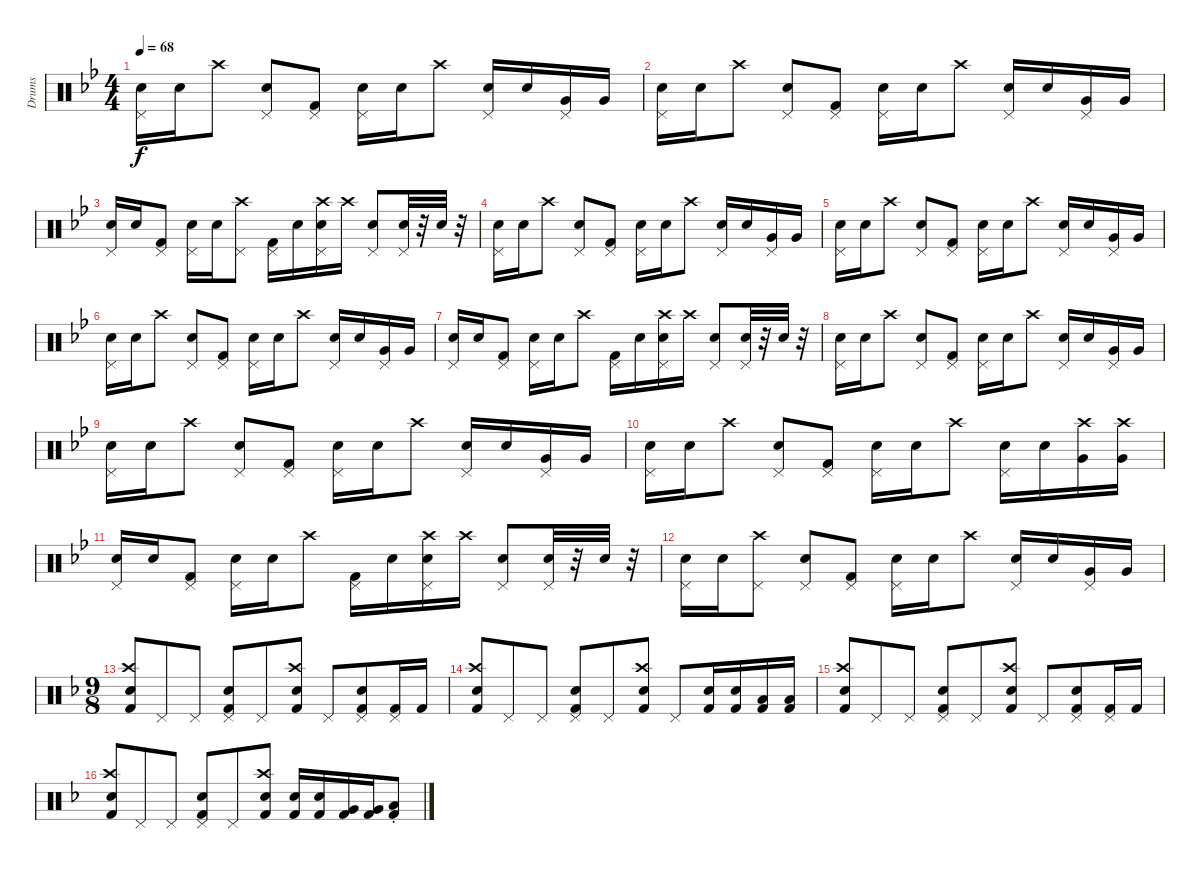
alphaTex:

\track ("Drums" "Drums") {instrument percussion}
\staff {score}
\articulation defaults
\ts (4 4)
\tempo 68
\clef neutral
\ks gminor
("Pedal Hi-Hat (hit)" "Snare (hit) 2").16{dy f} "Snare (hit) 2".16 "Crash high (hit)".8 ("Pedal Hi-Hat (hit)" "Snare (hit) 2").8 ("Pedal Hi-Hat (hit)" "Kick (hit) 2").8 ("Pedal Hi-Hat (hit)" "Snare (hit) 2").16 "Snare (hit) 2".16 "Crash high (hit)".8 ("Pedal Hi-Hat (hit)" "Snare (hit) 2").16 "Snare (hit) 2".16 ("Pedal Hi-Hat (hit)" "Very Low Tom (hit)").16 "Very Low Tom (hit)".16 |
("Pedal Hi-Hat (hit)" "Snare (hit) 2").16 "Snare (hit) 2".16 "Crash high (hit)".8 ("Pedal Hi-Hat (hit)" "Snare (hit) 2").8 ("Pedal Hi-Hat (hit)" "Kick (hit) 2").8 ("Pedal Hi-Hat (hit)" "Snare (hit) 2").16 "Snare (hit) 2".16 "Crash high (hit)".8 ("Pedal Hi-Hat (hit)" "Snare (hit) 2").16 "Snare (hit) 2".16 ("Pedal Hi-Hat (hit)" "Very Low Tom (hit)").16 "Very Low Tom (hit)".16 |
("Pedal Hi-Hat (hit)" "Snare (hit) 2").16 "Snare (hit) 2".16 ("Pedal Hi-Hat (hit)" "Kick (hit) 2").8 ("Pedal Hi-Hat (hit)" "Snare (hit) 2").16 "Snare (hit) 2".16 ("Pedal Hi-Hat (hit)" "Crash high (hit)").8 ("Pedal Hi-Hat (hit)" "Kick (hit) 2").16 "Snare (hit) 2".16 ("Pedal Hi-Hat (hit)" "Snare (hit) 2" "Crash high (hit)").16 "Crash high (hit)".16 ("Pedal Hi-Hat (hit)" "Snare (hit) 2").8 ("Pedal Hi-Hat (hit)" "Snare (hit) 2").32 r.32 "Snare (hit) 2".32 r.32 |
("Pedal Hi-Hat (hit)" "Snare (hit) 2").16 "Snare (hit) 2".16 "Crash high (hit)".8 ("Pedal Hi-Hat (hit)" "Snare (hit) 2").8 ("Pedal Hi-Hat (hit)" "Kick (hit) 2").8 ("Pedal Hi-Hat (hit)" "Snare (hit) 2").16 "Snare (hit) 2".16 "Crash high (hit)".8 ("Pedal Hi-Hat (hit)" "Snare (hit) 2").16 "Snare (hit) 2".16 ("Pedal Hi-Hat (hit)" "Very Low Tom (hit)").16 "Very Low Tom (hit)".16 |
("Pedal Hi-Hat (hit)" "Snare (hit) 2").16 "Snare (hit) 2".16 "Crash high (hit)".8 ("Pedal Hi-Hat (hit)" "Snare (hit) 2").8 ("Pedal Hi-Hat (hit)" "Kick (hit) 2").8 ("Pedal Hi-Hat (hit)" "Snare (hit) 2").16 "Snare (hit) 2".16 "Crash high (hit)".8 ("Pedal Hi-Hat (hit)" "Snare (hit) 2").16 "Snare (hit) 2".16 ("Pedal Hi-Hat (hit)" "Very Low Tom (hit)").16 "Very Low Tom (hit)".16 |
("Pedal Hi-Hat (hit)" "Snare (hit) 2").16 "Snare (hit) 2".16 "Crash high (hit)".8 ("Pedal Hi-Hat (hit)" "Snare (hit) 2").8 ("Pedal Hi-Hat (hit)" "Kick (hit) 2").8 ("Pedal Hi-Hat (hit)" "Snare (hit) 2").16 "Snare (hit) 2".16 "Crash high (hit)".8 ("Pedal Hi-Hat (hit)" "Snare (hit) 2").16 "Snare (hit) 2".16 ("Pedal Hi-Hat (hit)" "Very Low Tom (hit)").16 "Very Low Tom (hit)".16 |
("Pedal Hi-Hat (hit)" "Snare (hit) 2").16 "Snare (hit) 2".16 ("Pedal Hi-Hat (hit)" "Kick (hit) 2").8 ("Pedal Hi-Hat (hit)" "Snare (hit) 2").16 "Snare (hit) 2".16 "Crash high (hit)".8 ("Pedal Hi-Hat (hit)" "Kick (hit) 2").16 "Snare (hit) 2".16 ("Pedal Hi-Hat (hit)" "Snare (hit) 2" "Crash high (hit)").16 "Crash high (hit)".16 ("Pedal Hi-Hat (hit)" "Snare (hit) 2").8 ("Pedal Hi-Hat (hit)" "Snare (hit) 2").32 r.32 "Snare (hit) 2".32 r.32 |
("Pedal Hi-Hat (hit)" "Snare (hit) 2").16 "Snare (hit) 2".16 "Crash high (hit)".8 ("Pedal Hi-Hat (hit)" "Snare (hit) 2").8 ("Pedal Hi-Hat (hit)" "Kick (hit) 2").8 ("Pedal Hi-Hat (hit)" "Snare (hit) 2").16 "Snare (hit) 2".16 "Crash high (hit)".8 ("Pedal Hi-Hat (hit)" "Snare (hit) 2").16 "Snare (hit) 2".16 ("Pedal Hi-Hat (hit)" "Very Low Tom (hit)").16 "Very Low Tom (hit)".16 |
("Pedal Hi-Hat (hit)" "Snare (hit) 2").16 "Snare (hit) 2".16 "Crash high (hit)".8 ("Pedal Hi-Hat (hit)" "Snare (hit) 2").8 ("Pedal Hi-Hat (hit)" "Kick (hit) 2").8 ("Pedal Hi-Hat (hit)" "Snare (hit) 2").16 "Snare (hit) 2".16 "Crash high (hit)".8 ("Pedal Hi-Hat (hit)" "Snare (hit) 2").16 "Snare (hit) 2".16 ("Pedal Hi-Hat (hit)" "Very Low Tom (hit)").16 "Very Low Tom (hit)".16 |
("Pedal Hi-Hat (hit)" "Snare (hit) 2").16 "Snare (hit) 2".16 "Crash high (hit)".8 ("Pedal Hi-Hat (hit)" "Snare (hit) 2").8 ("Pedal Hi-Hat (hit)" "Kick (hit) 2").8 ("Pedal Hi-Hat (hit)" "Snare (hit) 2").16 "Snare (hit) 2".16 "Crash high (hit)".8 ("Pedal Hi-Hat (hit)" "Snare (hit) 2").16 "Snare (hit) 2".16 ("Very Low Tom (hit)" "Crash high (hit)").16 ("Very Low Tom (hit)" "Crash high (hit)").16 |
("Pedal Hi-Hat (hit)" "Snare (hit) 2").16 "Snare (hit) 2".16 ("Pedal Hi-Hat (hit)" "Kick (hit) 2").8 ("Pedal Hi-Hat (hit)" "Snare (hit) 2").16 "Snare (hit) 2".16 "Crash high (hit)".8 ("Pedal Hi-Hat (hit)" "Kick (hit) 2").16 "Snare (hit) 2".16 ("Pedal Hi-Hat (hit)" "Snare (hit) 2" "Crash high (hit)").16 "Crash high (hit)".16 ("Pedal Hi-Hat (hit)" "Snare (hit) 2").8 ("Pedal Hi-Hat (hit)" "Snare (hit) 2").32 r.32 "Snare (hit) 2".32 r.32 |
("Pedal Hi-Hat (hit)" "Snare (hit) 2").16 "Snare (hit) 2".16 ("Pedal Hi-Hat (hit)" "Crash high (hit)").8 ("Pedal Hi-Hat (hit)" "Snare (hit) 2").8 ("Pedal Hi-Hat (hit)" "Kick (hit) 2").8 ("Pedal Hi-Hat (hit)" "Snare (hit) 2").16 "Snare (hit) 2".16 "Crash high (hit)".8 ("Pedal Hi-Hat (hit)" "Snare (hit) 2").16 "Snare (hit) 2".16 ("Pedal Hi-Hat (hit)" "Very Low Tom (hit)").16 "Very Low Tom (hit)".16 |
\ts (9 8)
\ks dminor
("Snare (hit) 2" "Kick (hit) 2" "Crash high (hit)").8 "Pedal Hi-Hat (hit)".8 "Pedal Hi-Hat (hit)".8 ("Pedal Hi-Hat (hit)" "Snare (hit) 2" "Kick (hit) 2").8 "Pedal Hi-Hat (hit)".8 ("Snare (hit) 2" "Kick (hit) 2" "Crash high (hit)").8 "Pedal Hi-Hat (hit)".8 ("Pedal Hi-Hat (hit)" "Snare (hit) 2" "Kick (hit) 2").8 ("Pedal Hi-Hat (hit)" "Kick (hit) 2").16 "Kick (hit) 2".16 |
("Snare (hit) 2" "Kick (hit) 2" "Crash high (hit)").8 "Pedal Hi-Hat (hit)".8 "Pedal Hi-Hat (hit)".8 ("Pedal Hi-Hat (hit)" "Snare (hit) 2" "Kick (hit) 2").8 "Pedal Hi-Hat (hit)".8 ("Snare (hit) 2" "Kick (hit) 2" "Crash high (hit)").8 "Pedal Hi-Hat (hit)".8 ("Snare (hit) 2" "Kick (hit) 2").16 ("Snare (hit) 2" "Kick (hit) 2").16 ("Low Floor Tom (hit)" "Kick (hit) 2").16 ("Low Floor Tom (hit)" "Kick (hit) 2").16 |
("Snare (hit) 2" "Kick (hit) 2" "Crash high (hit)").8 "Pedal Hi-Hat (hit)".8 "Pedal Hi-Hat (hit)".8 ("Pedal Hi-Hat (hit)" "Snare (hit) 2" "Kick (hit) 2").8 "Pedal Hi-Hat (hit)".8 ("Snare (hit) 2" "Kick (hit) 2" "Crash high (hit)").8 "Pedal Hi-Hat (hit)".8 ("Pedal Hi-Hat (hit)" "Snare (hit) 2" "Kick (hit) 2").8 ("Pedal Hi-Hat (hit)" "Kick (hit) 2").16 "Kick (hit) 2".16 |
("Snare (hit) 2" "Kick (hit) 2" "Crash high (hit)").8 "Pedal Hi-Hat (hit)".8 "Pedal Hi-Hat (hit)".8 ("Pedal Hi-Hat (hit)" "Snare (hit) 2" "Kick (hit) 2").8 "Pedal Hi-Hat (hit)".8 ("Snare (hit) 2" "Kick (hit) 2" "Crash high (hit)").8 ("Snare (hit) 2" "Kick (hit) 2").16 ("Snare (hit) 2" "Kick (hit) 2").16 ("Very Low Tom (hit)" "Kick (hit) 2").16 ("Very Low Tom (hit)" "Kick (hit) 2").16 ("Low Floor Tom (hit)"{st} "Kick (hit) 2"{st}).8
